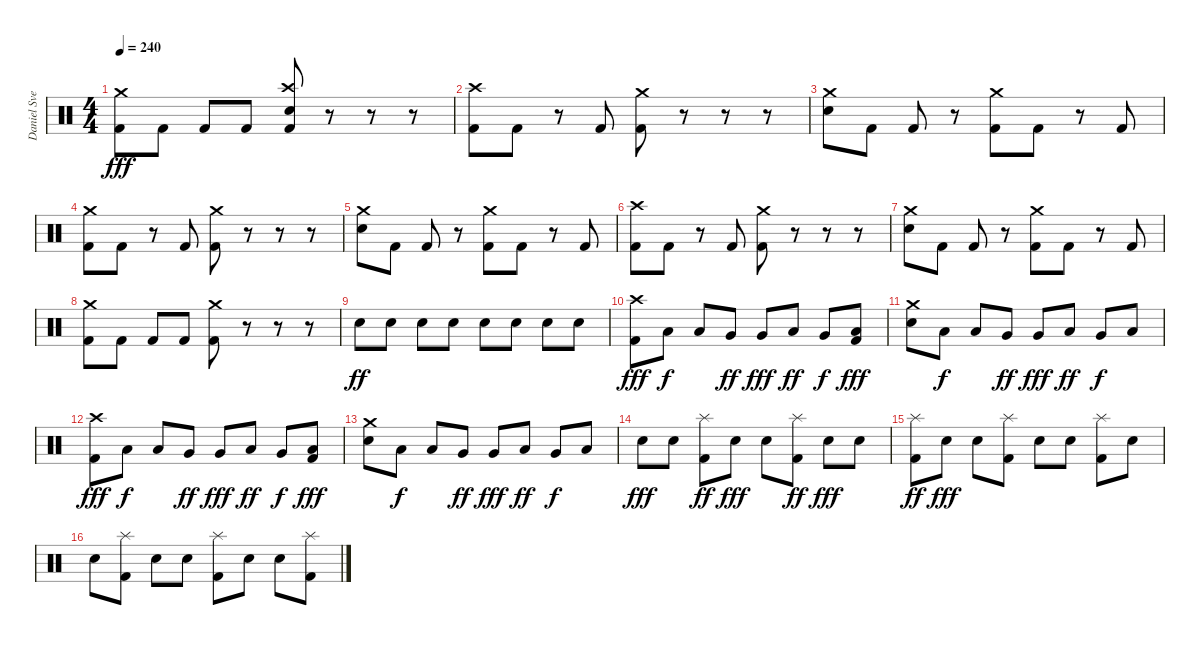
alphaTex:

\track ("Daniel Svensson" "Daniel Sve") {instrument percussion}
\staff {score}
\articulation defaults
\ts (4 4)
\tempo 240
\clef neutral
\ks c
("Crash medium (hit)" "Kick (hit) 2").8{dy fff} "Kick (hit) 2".8 "Kick (hit) 2".8 "Kick (hit) 2".8 ("Crash high (hit)" "Electric Snare (hit)" "Kick (hit) 2").8 r.8 r.8 r.8 |
("Crash high (hit)" "Kick (hit) 2").8 "Kick (hit) 2".8 r.8 "Kick (hit) 2".8 ("Crash medium (hit)" "Kick (hit) 2").8 r.8 r.8 r.8 |
("Crash medium (hit)" "Electric Snare (hit)").8 "Kick (hit) 2".8 "Kick (hit) 2".8 r.8 ("Crash medium (hit)" "Kick (hit) 2").8 "Kick (hit) 2".8 r.8 "Kick (hit) 2".8 |
("Crash medium (hit)" "Kick (hit) 2").8 "Kick (hit) 2".8 r.8 "Kick (hit) 2".8 ("Crash medium (hit)" "Kick (hit) 2").8 r.8 r.8 r.8 |
("Crash medium (hit)" "Electric Snare (hit)").8 "Kick (hit) 2".8 "Kick (hit) 2".8 r.8 ("Crash medium (hit)" "Kick (hit) 2").8 "Kick (hit) 2".8 r.8 "Kick (hit) 2".8 |
("Crash high (hit)" "Kick (hit) 2").8 "Kick (hit) 2".8 r.8 "Kick (hit) 2".8 ("Crash medium (hit)" "Kick (hit) 2").8 r.8 r.8 r.8 |
("Crash medium (hit)" "Electric Snare (hit)").8 "Kick (hit) 2".8 "Kick (hit) 2".8 r.8 ("Crash medium (hit)" "Kick (hit) 2").8 "Kick (hit) 2".8 r.8 "Kick (hit) 2".8 |
("Crash medium (hit)" "Kick (hit) 2").8 "Kick (hit) 2".8 "Kick (hit) 2".8 "Kick (hit) 2".8 ("Crash medium (hit)" "Kick (hit) 2").8 r.8 r.8 r.8 |
"Electric Snare (hit)".8{dy ff} "Electric Snare (hit)".8 "Electric Snare (hit)".8 "Electric Snare (hit)".8 "Electric Snare (hit)".8 "Electric Snare (hit)".8 "Electric Snare (hit)".8 "Electric Snare (hit)".8 |
("Crash high (hit)" "Kick (hit) 2").8{dy fff} "Low Floor Tom (hit)".8{dy f} "Low Floor Tom (hit)".8 "Very Low Tom (hit)".8{dy ff} "Very Low Tom (hit)".8{dy fff} "Low Tom (hit)".8{dy ff} "Very Low Tom (hit)".8{dy f} ("Low Floor Tom (hit)" "Kick (hit) 2").8{dy fff} |
("Crash medium (hit)" "Electric Snare (hit)").8 "Low Floor Tom (hit)".8{dy f} "Low Floor Tom (hit)".8 "Very Low Tom (hit)".8{dy ff} "Very Low Tom (hit)".8{dy fff} "Low Tom (hit)".8{dy ff} "Very Low Tom (hit)".8{dy f} "Low Floor Tom (hit)".8 |
("Crash high (hit)" "Kick (hit) 2").8{dy fff} "Low Floor Tom (hit)".8{dy f} "Low Floor Tom (hit)".8 "Very Low Tom (hit)".8{dy ff} "Very Low Tom (hit)".8{dy fff} "Low Tom (hit)".8{dy ff} "Very Low Tom (hit)".8{dy f} ("Low Floor Tom (hit)" "Kick (hit) 2").8{dy fff} |
("Crash medium (hit)" "Electric Snare (hit)").8 "Low Floor Tom (hit)".8{dy f} "Low Floor Tom (hit)".8 "Very Low Tom (hit)".8{dy ff} "Very Low Tom (hit)".8{dy fff} "Low Tom (hit)".8{dy ff} "Very Low Tom (hit)".8{dy f} "Low Floor Tom (hit)".8 |
"Electric Snare (hit)".8{dy fff} "Electric Snare (hit)".8 ("Splash (hit)" "Kick (hit) 2").8{dy ff} "Electric Snare (hit)".8{dy fff} "Electric Snare (hit)".8 ("Splash (hit)" "Kick (hit) 2").8{dy ff} "Electric Snare (hit)".8{dy fff} "Electric Snare (hit)".8 |
("Splash (hit)" "Kick (hit) 2").8{dy ff} "Electric Snare (hit)".8{dy fff} "Electric Snare (hit)".8 ("Splash (hit)" "Kick (hit) 2").8 "Electric Snare (hit)".8 "Electric Snare (hit)".8 ("Splash (hit)" "Kick (hit) 2").8 "Electric Snare (hit)".8 |
"Electric Snare (hit)".8 ("Splash (hit)" "Kick (hit) 2").8 "Electric Snare (hit)".8 "Electric Snare (hit)".8 ("Splash (hit)" "Kick (hit) 2").8 "Electric Snare (hit)".8 "Electric Snare (hit)".8 ("Splash (hit)" "Kick (hit) 2").8
